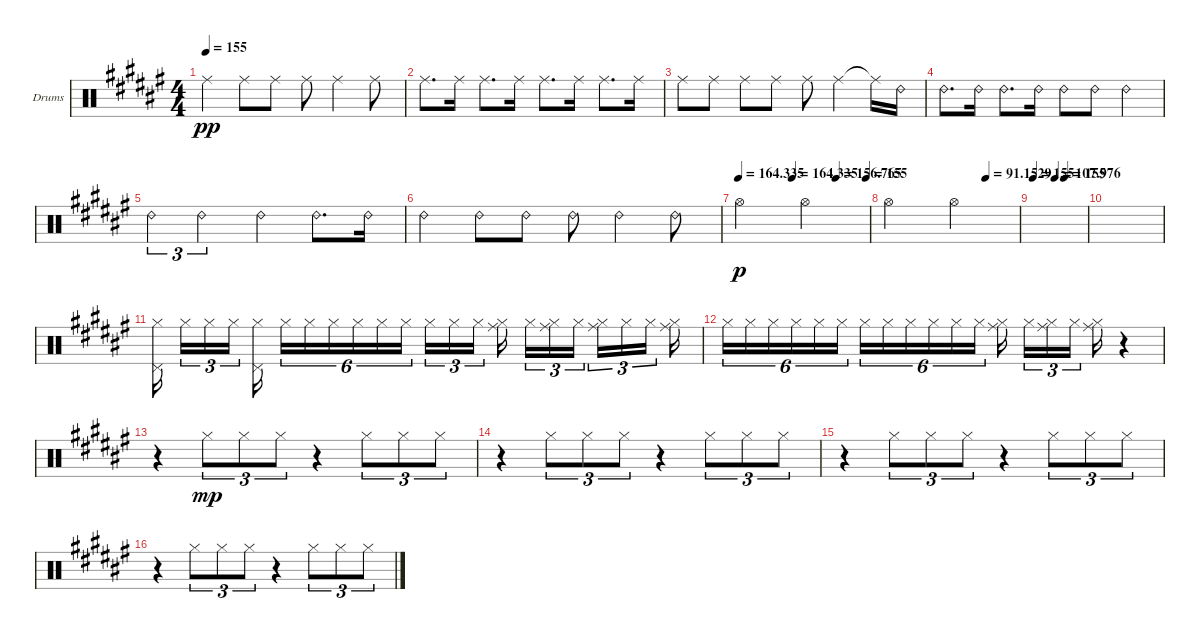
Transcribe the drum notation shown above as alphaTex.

\bracketExtendMode groupsimilarinstruments
\firstSystemTrackNameOrientation horizontal
\otherSystemsTrackNameOrientation horizontal
\track ("Perc" "Drums") {instrument percussion}
\staff {score}
\articulation defaults
\ts (4 4)
\tempo 155
\clef neutral
\ks f# "Ride (middle)".4{dy pp} "Ride (middle)".8 "Ride (middle)".8 "Ride (middle)".8 "Ride (middle)".4 "Ride (middle)".8
|
"Ride (middle)".8{d} "Ride (middle)".16 "Ride (middle)".8{d} "Ride (middle)".16 "Ride (middle)".8{d} "Ride (middle)".16 "Ride (middle)".8{d} "Ride (middle)".16 |
"Ride (middle)".8 "Ride (middle)".8 "Ride (middle)".8 "Ride (middle)".8 "Ride (middle)".8 "Ride (middle)".4 "Ride (middle)"{t}.16 "Ride (bell) 2".16 |
"Ride (bell) 2".8{d} "Ride (bell) 2".16 "Ride (bell) 2".8{d} "Ride (bell) 2".16 "Ride (bell) 2".8 "Ride (bell) 2".8 "Ride (bell) 2".4 |
"Ride (bell) 2".4{tu (3 2)} "Ride (bell) 2".2{tu (3 2)} "Ride (bell) 2".4 "Ride (bell) 2".8{d} "Ride (bell) 2".16 |
"Ride (bell) 2".4 "Ride (bell) 2".8 "Ride (bell) 2".8 "Ride (bell) 2".8 "Ride (bell) 2".4 "Ride (bell) 2".8 |
\tempo
164.335
\tempo (164.335 0.4125)
\tempo (156.765 0.75)
\tempo (155 0.98125)
"Hi-Hat (open)".2{dy p} "Hi-Hat (open)".2 |
\tempo (91.1529 0.75)
"Hi-Hat (open)".2 "Hi-Hat (open)".2 |
\tempo (155 0.01875)
\tempo (107.976 0.41875)
\tempo (155 0.59375)
|
|
("Hi-Hat (closed)" "Pedal Hi-Hat (hit)").16 "Hi-Hat (closed)".16{tu (3 2)} "Hi-Hat (closed)".16{tu (3 2)} "Hi-Hat (closed)".16{tu (3 2)} ("Hi-Hat (closed)" "Pedal Hi-Hat (hit)").16 "Hi-Hat (closed)".16{tu (6 4)} "Hi-Hat (closed)".16{tu (6 4)} "Hi-Hat (closed)".16{tu (6 4)} "Hi-Hat (closed)".16{tu (6 4)} "Hi-Hat (closed)".16{tu (6 4)} "Hi-Hat (closed)".16{tu (6 4)} "Hi-Hat (closed)".16{tu (3 2)} "Hi-Hat (closed)".16{tu (3 2)} "Hi-Hat (closed)".16{tu (3 2)} ("Hi-Hat (closed)" "Ride (middle)").16 "Hi-Hat (closed)".16{tu (3 2)} ("Hi-Hat (closed)" "Ride (middle)").16{tu (3 2)} "Hi-Hat (closed)".16{tu (3 2)} ("Hi-Hat (closed)" "Ride (middle)").16{tu (3 2)} "Hi-Hat (closed)".16{tu (3 2)} "Hi-Hat (closed)".16{tu (3 2)} ("Hi-Hat (closed)" "Ride (middle)").16 |
"Hi-Hat (closed)".16{tu (6 4)} "Hi-Hat (closed)".16{tu (6 4)} "Hi-Hat (closed)".16{tu (6 4)} "Hi-Hat (closed)".16{tu (6 4)} "Hi-Hat (closed)".16{tu (6 4)} "Hi-Hat (closed)".16{tu (6 4)} "Hi-Hat (closed)".16{tu (6 4)} "Hi-Hat (closed)".16{tu (6 4)} "Hi-Hat (closed)".16{tu (6 4)} "Hi-Hat (closed)".16{tu (6 4)} "Hi-Hat (closed)".16{tu (6 4)} "Hi-Hat (closed)".16{tu (6 4)} ("Hi-Hat (closed)" "Ride (middle)").16 "Hi-Hat (closed)".16{tu (3 2)} ("Hi-Hat (closed)" "Ride (middle)").16{tu (3 2)} "Hi-Hat (closed)".16{tu (3 2)} ("Hi-Hat (closed)" "Ride (middle)").16 r.4 |
r.4 "Hi-Hat (closed)".8{tu (3 2) dy mp} "Hi-Hat (closed)".8{tu (3 2)} "Hi-Hat (closed)".8{tu (3 2)} r.4 "Hi-Hat (closed)".8{tu (3 2)} "Hi-Hat (closed)".8{tu (3 2)} "Hi-Hat (closed)".8{tu (3 2)} |
r.4 "Hi-Hat (closed)".8{tu (3 2)} "Hi-Hat (closed)".8{tu (3 2)} "Hi-Hat (closed)".8{tu (3 2)} r.4 "Hi-Hat (closed)".8{tu (3 2)} "Hi-Hat (closed)".8{tu (3 2)} "Hi-Hat (closed)".8{tu (3 2)} |
r.4 "Hi-Hat (closed)".8{tu (3 2)} "Hi-Hat (closed)".8{tu (3 2)} "Hi-Hat (closed)".8{tu (3 2)} r.4 "Hi-Hat (closed)".8{tu (3 2)} "Hi-Hat (closed)".8{tu (3 2)} "Hi-Hat (closed)".8{tu (3 2)} |
r.4 "Hi-Hat (closed)".8{tu (3 2)} "Hi-Hat (closed)".8{tu (3 2)} "Hi-Hat (closed)".8{tu (3 2)} r.4 "Hi-Hat (closed)".8{tu (3 2)} "Hi-Hat (closed)".8{tu (3 2)} "Hi-Hat (closed)".8{tu (3 2)}
